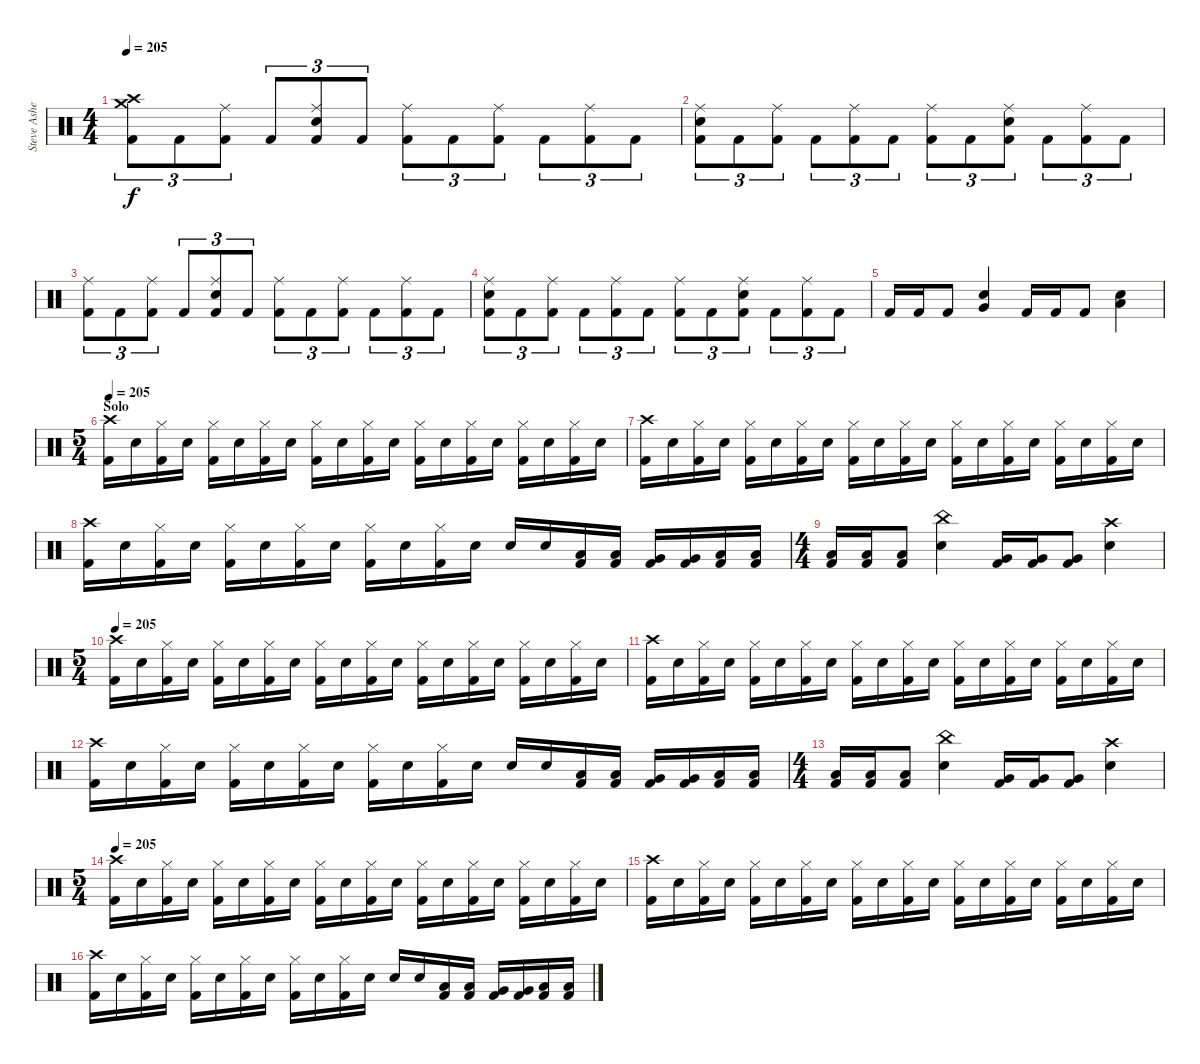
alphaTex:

\track ("Steve Asheim" "Steve Ashe") {instrument percussion}
\staff {score}
\articulation defaults
\ts (4 4)
\tempo 205
\clef neutral
\ks c
("Crash medium (hit)" "Crash high (hit)" "Kick (hit) 2").8{tu (3 2) dy f} "Kick (hit) 2".8{tu (3 2)} ("Ride (middle)" "Kick (hit) 2").8{tu (3 2)} "Kick (hit) 2".8{tu (3 2)} ("Ride (middle)" "Electric Snare (hit)" "Kick (hit) 2").8{tu (3 2)} "Kick (hit) 2".8{tu (3 2)} ("Ride (middle)" "Kick (hit) 2").8{tu (3 2)} "Kick (hit) 2".8{tu (3 2)} ("Ride (middle)" "Kick (hit) 2").8{tu (3 2)} "Kick (hit) 2".8{tu (3 2)} ("Ride (middle)" "Kick (hit) 2").8{tu (3 2)} "Kick (hit) 2".8{tu (3 2)} |
("Ride (middle)" "Electric Snare (hit)" "Kick (hit) 2").8{tu (3 2)} "Kick (hit) 2".8{tu (3 2)} ("Ride (middle)" "Kick (hit) 2").8{tu (3 2)} "Kick (hit) 2".8{tu (3 2)} ("Ride (middle)" "Kick (hit) 2").8{tu (3 2)} "Kick (hit) 2".8{tu (3 2)} ("Ride (middle)" "Kick (hit) 2").8{tu (3 2)} "Kick (hit) 2".8{tu (3 2)} ("Ride (middle)" "Electric Snare (hit)" "Kick (hit) 2").8{tu (3 2)} "Kick (hit) 2".8{tu (3 2)} ("Ride (middle)" "Kick (hit) 2").8{tu (3 2)} "Kick (hit) 2".8{tu (3 2)} |
("Ride (middle)" "Kick (hit) 2").8{tu (3 2)} "Kick (hit) 2".8{tu (3 2)} ("Ride (middle)" "Kick (hit) 2").8{tu (3 2)} "Kick (hit) 2".8{tu (3 2)} ("Ride (middle)" "Electric Snare (hit)" "Kick (hit) 2").8{tu (3 2)} "Kick (hit) 2".8{tu (3 2)} ("Ride (middle)" "Kick (hit) 2").8{tu (3 2)} "Kick (hit) 2".8{tu (3 2)} ("Ride (middle)" "Kick (hit) 2").8{tu (3 2)} "Kick (hit) 2".8{tu (3 2)} ("Ride (middle)" "Kick (hit) 2").8{tu (3 2)} "Kick (hit) 2".8{tu (3 2)} |
("Ride (middle)" "Electric Snare (hit)" "Kick (hit) 2").8{tu (3 2)} "Kick (hit) 2".8{tu (3 2)} ("Ride (middle)" "Kick (hit) 2").8{tu (3 2)} "Kick (hit) 2".8{tu (3 2)} ("Ride (middle)" "Kick (hit) 2").8{tu (3 2)} "Kick (hit) 2".8{tu (3 2)} ("Ride (middle)" "Kick (hit) 2").8{tu (3 2)} "Kick (hit) 2".8{tu (3 2)} ("Ride (middle)" "Electric Snare (hit)" "Kick (hit) 2").8{tu (3 2)} "Kick (hit) 2".8{tu (3 2)} ("Ride (middle)" "Kick (hit) 2").8{tu (3 2)} "Kick (hit) 2".8{tu (3 2)} |
"Kick (hit) 2".16 "Kick (hit) 2".16 "Kick (hit) 2".8 ("Very Low Tom (hit)" "Electric Snare (hit)").4 "Kick (hit) 2".16 "Kick (hit) 2".16 "Kick (hit) 2".8 ("Low Floor Tom (hit)" "Electric Snare (hit)").4 |
\ts (5 4)
\section ("" "Solo")
\tempo 205
("Crash high (hit)" "Kick (hit) 2").16 "Electric Snare (hit)".16 ("Hi-Hat (closed)" "Kick (hit) 2").16 "Electric Snare (hit)".16 ("Hi-Hat (closed)" "Kick (hit) 2").16 "Electric Snare (hit)".16 ("Hi-Hat (closed)" "Kick (hit) 2").16 "Electric Snare (hit)".16 ("Hi-Hat (closed)" "Kick (hit) 2").16 "Electric Snare (hit)".16 ("Hi-Hat (closed)" "Kick (hit) 2").16 "Electric Snare (hit)".16 ("Hi-Hat (closed)" "Kick (hit) 2").16 "Electric Snare (hit)".16 ("Hi-Hat (closed)" "Kick (hit) 2").16 "Electric Snare (hit)".16 ("Hi-Hat (closed)" "Kick (hit) 2").16 "Electric Snare (hit)".16 ("Hi-Hat (closed)" "Kick (hit) 2").16 "Electric Snare (hit)".16 |
("Crash high (hit)" "Kick (hit) 2").16 "Electric Snare (hit)".16 ("Hi-Hat (closed)" "Kick (hit) 2").16 "Electric Snare (hit)".16 ("Hi-Hat (closed)" "Kick (hit) 2").16 "Electric Snare (hit)".16 ("Hi-Hat (closed)" "Kick (hit) 2").16 "Electric Snare (hit)".16 ("Hi-Hat (closed)" "Kick (hit) 2").16 "Electric Snare (hit)".16 ("Hi-Hat (closed)" "Kick (hit) 2").16 "Electric Snare (hit)".16 ("Hi-Hat (closed)" "Kick (hit) 2").16 "Electric Snare (hit)".16 ("Hi-Hat (closed)" "Kick (hit) 2").16 "Electric Snare (hit)".16 ("Hi-Hat (closed)" "Kick (hit) 2").16 "Electric Snare (hit)".16 ("Hi-Hat (closed)" "Kick (hit) 2").16 "Electric Snare (hit)".16 |
("Crash high (hit)" "Kick (hit) 2").16 "Electric Snare (hit)".16 ("Hi-Hat (closed)" "Kick (hit) 2").16 "Electric Snare (hit)".16 ("Hi-Hat (closed)" "Kick (hit) 2").16 "Electric Snare (hit)".16 ("Hi-Hat (closed)" "Kick (hit) 2").16 "Electric Snare (hit)".16 ("Hi-Hat (closed)" "Kick (hit) 2").16 "Electric Snare (hit)".16 ("Hi-Hat (closed)" "Kick (hit) 2").16 "Electric Snare (hit)".16 "Electric Snare (hit)".16 "Electric Snare (hit)".16 ("Low Tom (hit)" "Kick (hit) 2").16 ("Low Tom (hit)" "Kick (hit) 2").16 ("Very Low Tom (hit)" "Kick (hit) 2").16 ("Very Low Tom (hit)" "Kick (hit) 2").16 ("Low Floor Tom (hit)" "Kick (hit) 2").16 ("Low Floor Tom (hit)" "Kick (hit) 2").16 |
\ts (4 4)
("Low Tom (hit)" "Kick (hit) 2").16{volume 14} ("Low Tom (hit)" "Kick (hit) 2").16 ("Low Tom (hit)" "Kick (hit) 2").8 ("China (hit)" "Electric Snare (hit)").4 ("Very Low Tom (hit)" "Kick (hit) 2").16 ("Very Low Tom (hit)" "Kick (hit) 2").16 ("Very Low Tom (hit)" "Kick (hit) 2").8 ("Crash high (hit)" "Electric Snare (hit)").4 |
\ts (5 4)
\tempo 205
("Crash high (hit)" "Kick (hit) 2").16 "Electric Snare (hit)".16 ("Hi-Hat (closed)" "Kick (hit) 2").16 "Electric Snare (hit)".16 ("Hi-Hat (closed)" "Kick (hit) 2").16 "Electric Snare (hit)".16 ("Hi-Hat (closed)" "Kick (hit) 2").16 "Electric Snare (hit)".16 ("Hi-Hat (closed)" "Kick (hit) 2").16 "Electric Snare (hit)".16 ("Hi-Hat (closed)" "Kick (hit) 2").16 "Electric Snare (hit)".16 ("Hi-Hat (closed)" "Kick (hit) 2").16 "Electric Snare (hit)".16 ("Hi-Hat (closed)" "Kick (hit) 2").16 "Electric Snare (hit)".16 ("Hi-Hat (closed)" "Kick (hit) 2").16 "Electric Snare (hit)".16 ("Hi-Hat (closed)" "Kick (hit) 2").16 "Electric Snare (hit)".16 |
("Crash high (hit)" "Kick (hit) 2").16 "Electric Snare (hit)".16 ("Hi-Hat (closed)" "Kick (hit) 2").16 "Electric Snare (hit)".16 ("Hi-Hat (closed)" "Kick (hit) 2").16 "Electric Snare (hit)".16 ("Hi-Hat (closed)" "Kick (hit) 2").16 "Electric Snare (hit)".16 ("Hi-Hat (closed)" "Kick (hit) 2").16 "Electric Snare (hit)".16 ("Hi-Hat (closed)" "Kick (hit) 2").16 "Electric Snare (hit)".16 ("Hi-Hat (closed)" "Kick (hit) 2").16 "Electric Snare (hit)".16 ("Hi-Hat (closed)" "Kick (hit) 2").16 "Electric Snare (hit)".16 ("Hi-Hat (closed)" "Kick (hit) 2").16 "Electric Snare (hit)".16 ("Hi-Hat (closed)" "Kick (hit) 2").16 "Electric Snare (hit)".16 |
("Crash high (hit)" "Kick (hit) 2").16 "Electric Snare (hit)".16 ("Hi-Hat (closed)" "Kick (hit) 2").16 "Electric Snare (hit)".16 ("Hi-Hat (closed)" "Kick (hit) 2").16 "Electric Snare (hit)".16 ("Hi-Hat (closed)" "Kick (hit) 2").16 "Electric Snare (hit)".16 ("Hi-Hat (closed)" "Kick (hit) 2").16 "Electric Snare (hit)".16 ("Hi-Hat (closed)" "Kick (hit) 2").16 "Electric Snare (hit)".16 "Electric Snare (hit)".16 "Electric Snare (hit)".16 ("Low Tom (hit)" "Kick (hit) 2").16 ("Low Tom (hit)" "Kick (hit) 2").16 ("Very Low Tom (hit)" "Kick (hit) 2").16 ("Very Low Tom (hit)" "Kick (hit) 2").16 ("Low Floor Tom (hit)" "Kick (hit) 2").16 ("Low Floor Tom (hit)" "Kick (hit) 2").16 |
\ts (4 4)
("Low Tom (hit)" "Kick (hit) 2").16{volume 14} ("Low Tom (hit)" "Kick (hit) 2").16 ("Low Tom (hit)" "Kick (hit) 2").8 ("China (hit)" "Electric Snare (hit)").4 ("Very Low Tom (hit)" "Kick (hit) 2").16 ("Very Low Tom (hit)" "Kick (hit) 2").16 ("Very Low Tom (hit)" "Kick (hit) 2").8 ("Crash high (hit)" "Electric Snare (hit)").4 |
\ts (5 4)
\tempo 205
("Crash high (hit)" "Kick (hit) 2").16 "Electric Snare (hit)".16 ("Hi-Hat (closed)" "Kick (hit) 2").16 "Electric Snare (hit)".16 ("Hi-Hat (closed)" "Kick (hit) 2").16 "Electric Snare (hit)".16 ("Hi-Hat (closed)" "Kick (hit) 2").16 "Electric Snare (hit)".16 ("Hi-Hat (closed)" "Kick (hit) 2").16 "Electric Snare (hit)".16 ("Hi-Hat (closed)" "Kick (hit) 2").16 "Electric Snare (hit)".16 ("Hi-Hat (closed)" "Kick (hit) 2").16 "Electric Snare (hit)".16 ("Hi-Hat (closed)" "Kick (hit) 2").16 "Electric Snare (hit)".16 ("Hi-Hat (closed)" "Kick (hit) 2").16 "Electric Snare (hit)".16 ("Hi-Hat (closed)" "Kick (hit) 2").16 "Electric Snare (hit)".16 |
("Crash high (hit)" "Kick (hit) 2").16 "Electric Snare (hit)".16 ("Hi-Hat (closed)" "Kick (hit) 2").16 "Electric Snare (hit)".16 ("Hi-Hat (closed)" "Kick (hit) 2").16 "Electric Snare (hit)".16 ("Hi-Hat (closed)" "Kick (hit) 2").16 "Electric Snare (hit)".16 ("Hi-Hat (closed)" "Kick (hit) 2").16 "Electric Snare (hit)".16 ("Hi-Hat (closed)" "Kick (hit) 2").16 "Electric Snare (hit)".16 ("Hi-Hat (closed)" "Kick (hit) 2").16 "Electric Snare (hit)".16 ("Hi-Hat (closed)" "Kick (hit) 2").16 "Electric Snare (hit)".16 ("Hi-Hat (closed)" "Kick (hit) 2").16 "Electric Snare (hit)".16 ("Hi-Hat (closed)" "Kick (hit) 2").16 "Electric Snare (hit)".16 |
("Crash high (hit)" "Kick (hit) 2").16 "Electric Snare (hit)".16 ("Hi-Hat (closed)" "Kick (hit) 2").16 "Electric Snare (hit)".16 ("Hi-Hat (closed)" "Kick (hit) 2").16 "Electric Snare (hit)".16 ("Hi-Hat (closed)" "Kick (hit) 2").16 "Electric Snare (hit)".16 ("Hi-Hat (closed)" "Kick (hit) 2").16 "Electric Snare (hit)".16 ("Hi-Hat (closed)" "Kick (hit) 2").16 "Electric Snare (hit)".16 "Electric Snare (hit)".16 "Electric Snare (hit)".16 ("Low Tom (hit)" "Kick (hit) 2").16 ("Low Tom (hit)" "Kick (hit) 2").16 ("Very Low Tom (hit)" "Kick (hit) 2").16 ("Very Low Tom (hit)" "Kick (hit) 2").16 ("Low Floor Tom (hit)" "Kick (hit) 2").16 ("Low Floor Tom (hit)" "Kick (hit) 2").16
